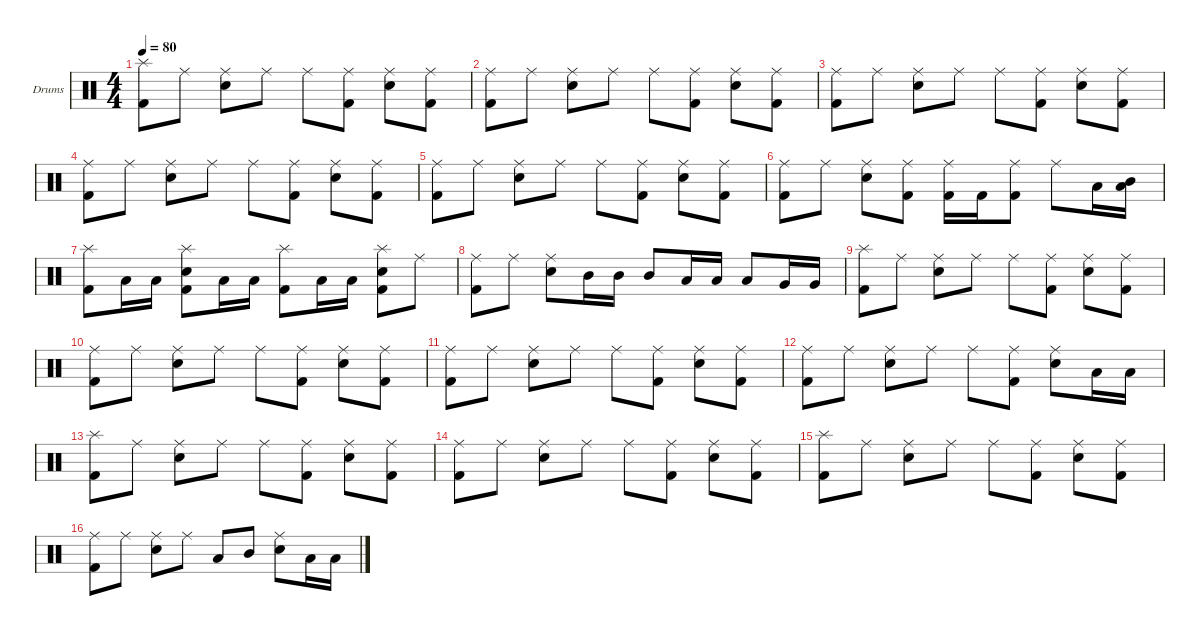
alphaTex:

\hideDynamics
\bracketExtendMode nobrackets
\firstSystemTrackNameOrientation horizontal
\otherSystemsTrackNameOrientation horizontal
\track ("Drumkit" "Drums") {instrument percussion}
\staff {score}
\articulation defaults
\ts (4 4)
\tempo 80
\clef neutral
\ks c
("Splash (hit)" "Kick (hit) 2").8{dy f} "Ride (middle)".8 ("Ride (middle)" "Snare (hit) 2").8 "Ride (middle)".8 "Ride (middle)".8 ("Ride (middle)" "Kick (hit) 2").8 ("Ride (middle)" "Snare (hit) 2").8 ("Ride (middle)" "Kick (hit) 2").8 |
("Ride (middle)" "Kick (hit) 2").8 "Ride (middle)".8 ("Ride (middle)" "Snare (hit) 2").8 "Ride (middle)".8 "Ride (middle)".8 ("Ride (middle)" "Kick (hit) 2").8 ("Ride (middle)" "Snare (hit) 2").8 ("Ride (middle)" "Kick (hit) 2").8 |
("Ride (middle)" "Kick (hit) 2").8 "Ride (middle)".8 ("Ride (middle)" "Snare (hit) 2").8 "Ride (middle)".8 "Ride (middle)".8 ("Ride (middle)" "Kick (hit) 2").8 ("Ride (middle)" "Snare (hit) 2").8 ("Ride (middle)" "Kick (hit) 2").8 |
("Ride (middle)" "Kick (hit) 2").8 "Ride (middle)".8 ("Ride (middle)" "Snare (hit) 2").8 "Ride (middle)".8 "Ride (middle)".8 ("Ride (middle)" "Kick (hit) 2").8 ("Ride (middle)" "Snare (hit) 2").8 ("Ride (middle)" "Kick (hit) 2").8 |
("Ride (middle)" "Kick (hit) 2").8 "Ride (middle)".8 ("Ride (middle)" "Snare (hit) 2").8 "Ride (middle)".8 "Ride (middle)".8 ("Ride (middle)" "Kick (hit) 2").8 ("Ride (middle)" "Snare (hit) 2").8 ("Ride (middle)" "Kick (hit) 2").8 |
("Ride (middle)" "Kick (hit) 2").8 "Ride (middle)".8 ("Ride (middle)" "Snare (hit) 2").8 ("Ride (middle)" "Kick (hit) 2").8 ("Ride (middle)" "Kick (hit) 2").16 "Kick (hit) 2".16 ("Ride (middle)" "Kick (hit) 2").8 "Ride (middle)".8 "Low Tom (hit)".16 ("Mid Tom (hit)" "Low Tom (hit)").16 |
("Splash (hit)" "Kick (hit) 2").8 "Low Tom (hit)".16 "Low Tom (hit)".16 ("Splash (hit)" "Snare (hit) 2" "Kick (hit) 2").8 "Low Tom (hit)".16 "Low Tom (hit)".16 ("Splash (hit)" "Kick (hit) 2").8 "Low Tom (hit)".16 "Low Tom (hit)".16 ("Splash (hit)" "Snare (hit) 2" "Kick (hit) 2").8 "Ride (middle)".8 |
("Ride (middle)" "Kick (hit) 2").8 "Ride (middle)".8 ("Ride (middle)" "Snare (hit) 2").8 "Mid Tom (hit)".16 "Mid Tom (hit)".16 "Mid Tom (hit)".8 "Low Tom (hit)".16 "Low Tom (hit)".16 "Low Tom (hit)".8 "Very Low Tom (hit)".16 "Very Low Tom (hit)".16 |
("Splash (hit)" "Kick (hit) 2").8 "Ride (middle)".8 ("Ride (middle)" "Snare (hit) 2").8 "Ride (middle)".8 "Ride (middle)".8 ("Ride (middle)" "Kick (hit) 2").8 ("Ride (middle)" "Snare (hit) 2").8 ("Ride (middle)" "Kick (hit) 2").8 |
("Ride (middle)" "Kick (hit) 2").8 "Ride (middle)".8 ("Ride (middle)" "Snare (hit) 2").8 "Ride (middle)".8 "Ride (middle)".8 ("Ride (middle)" "Kick (hit) 2").8 ("Ride (middle)" "Snare (hit) 2").8 ("Ride (middle)" "Kick (hit) 2").8 |
("Ride (middle)" "Kick (hit) 2").8 "Ride (middle)".8 ("Ride (middle)" "Snare (hit) 2").8 "Ride (middle)".8 "Ride (middle)".8 ("Ride (middle)" "Kick (hit) 2").8 ("Ride (middle)" "Snare (hit) 2").8 ("Ride (middle)" "Kick (hit) 2").8 |
("Ride (middle)" "Kick (hit) 2").8 "Ride (middle)".8 ("Ride (middle)" "Snare (hit) 2").8 "Ride (middle)".8 "Ride (middle)".8 ("Ride (middle)" "Kick (hit) 2").8 ("Ride (middle)" "Snare (hit) 2").8 "Low Tom (hit)".16 "Low Tom (hit)".16 |
("Splash (hit)" "Kick (hit) 2").8 "Ride (middle)".8 ("Ride (middle)" "Snare (hit) 2").8 "Ride (middle)".8 "Ride (middle)".8 ("Ride (middle)" "Kick (hit) 2").8 ("Ride (middle)" "Snare (hit) 2").8 ("Ride (middle)" "Kick (hit) 2").8 |
("Ride (middle)" "Kick (hit) 2").8 "Ride (middle)".8 ("Ride (middle)" "Snare (hit) 2").8 "Ride (middle)".8 "Ride (middle)".8 ("Ride (middle)" "Kick (hit) 2").8 ("Ride (middle)" "Snare (hit) 2").8 ("Ride (middle)" "Kick (hit) 2").8 |
("Splash (hit)" "Kick (hit) 2").8 "Ride (middle)".8 ("Ride (middle)" "Snare (hit) 2").8 "Ride (middle)".8 "Ride (middle)".8 ("Ride (middle)" "Kick (hit) 2").8 ("Ride (middle)" "Snare (hit) 2").8 ("Ride (middle)" "Kick (hit) 2").8 |
("Ride (middle)" "Kick (hit) 2").8 "Ride (middle)".8 ("Ride (middle)" "Snare (hit) 2").8 "Ride (middle)".8 "Low Tom (hit)".8 "Mid Tom (hit)".8 ("Ride (middle)" "Snare (hit) 2").8 "Low Tom (hit)".16 "Low Tom (hit)".16
